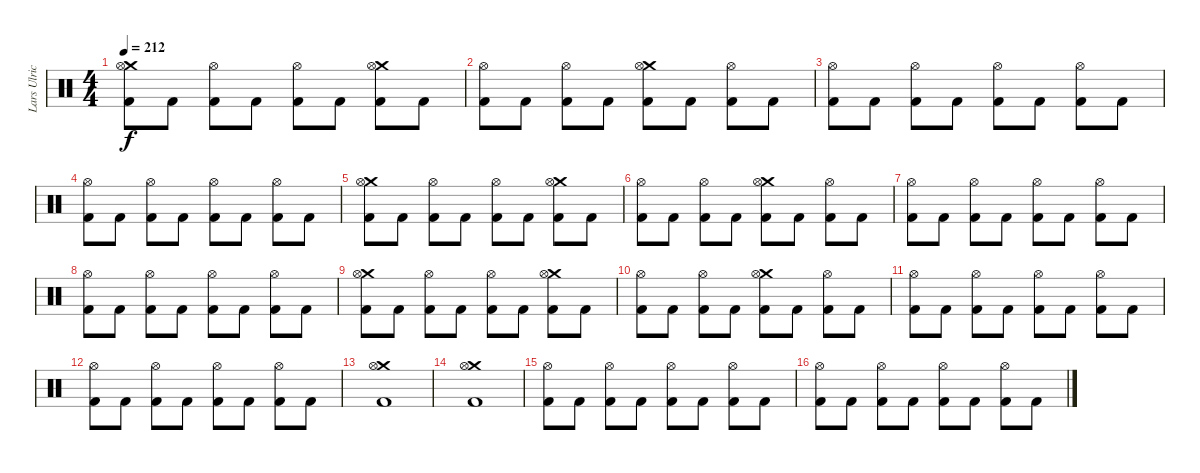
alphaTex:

\track ("Lars Ulrich" "Lars Ulric") {instrument percussion}
\staff {score}
\articulation defaults
\ts (4 4)
\tempo 212
\clef neutral
\ks c
("Crash medium (hit)" "Hi-Hat (open)" "Kick (hit) 2").8{dy f} "Kick (hit) 2".8 ("Hi-Hat (open)" "Kick (hit) 2").8 "Kick (hit) 2".8 ("Hi-Hat (open)" "Kick (hit) 2").8 "Kick (hit) 2".8 ("Crash medium (hit)" "Hi-Hat (open)" "Kick (hit) 2").8 "Kick (hit) 2".8 |
("Hi-Hat (open)" "Kick (hit) 2").8 "Kick (hit) 2".8 ("Hi-Hat (open)" "Kick (hit) 2").8 "Kick (hit) 2".8 ("Crash medium (hit)" "Hi-Hat (open)" "Kick (hit) 2").8 "Kick (hit) 2".8 ("Hi-Hat (open)" "Kick (hit) 2").8 "Kick (hit) 2".8 |
("Hi-Hat (open)" "Kick (hit) 2").8 "Kick (hit) 2".8 ("Hi-Hat (open)" "Kick (hit) 2").8 "Kick (hit) 2".8 ("Hi-Hat (open)" "Kick (hit) 2").8 "Kick (hit) 2".8 ("Hi-Hat (open)" "Kick (hit) 2").8 "Kick (hit) 2".8 |
("Hi-Hat (open)" "Kick (hit) 2").8 "Kick (hit) 2".8 ("Hi-Hat (open)" "Kick (hit) 2").8 "Kick (hit) 2".8 ("Hi-Hat (open)" "Kick (hit) 2").8 "Kick (hit) 2".8 ("Hi-Hat (open)" "Kick (hit) 2").8 "Kick (hit) 2".8 |
("Crash medium (hit)" "Hi-Hat (open)" "Kick (hit) 2").8 "Kick (hit) 2".8 ("Hi-Hat (open)" "Kick (hit) 2").8 "Kick (hit) 2".8 ("Hi-Hat (open)" "Kick (hit) 2").8 "Kick (hit) 2".8 ("Crash medium (hit)" "Hi-Hat (open)" "Kick (hit) 2").8 "Kick (hit) 2".8 |
("Hi-Hat (open)" "Kick (hit) 2").8 "Kick (hit) 2".8 ("Hi-Hat (open)" "Kick (hit) 2").8 "Kick (hit) 2".8 ("Crash medium (hit)" "Hi-Hat (open)" "Kick (hit) 2").8 "Kick (hit) 2".8 ("Hi-Hat (open)" "Kick (hit) 2").8 "Kick (hit) 2".8 |
("Hi-Hat (open)" "Kick (hit) 2").8 "Kick (hit) 2".8 ("Hi-Hat (open)" "Kick (hit) 2").8 "Kick (hit) 2".8 ("Hi-Hat (open)" "Kick (hit) 2").8 "Kick (hit) 2".8 ("Hi-Hat (open)" "Kick (hit) 2").8 "Kick (hit) 2".8 |
("Hi-Hat (open)" "Kick (hit) 2").8 "Kick (hit) 2".8 ("Hi-Hat (open)" "Kick (hit) 2").8 "Kick (hit) 2".8 ("Hi-Hat (open)" "Kick (hit) 2").8 "Kick (hit) 2".8 ("Hi-Hat (open)" "Kick (hit) 2").8 "Kick (hit) 2".8 |
("Crash medium (hit)" "Hi-Hat (open)" "Kick (hit) 2").8 "Kick (hit) 2".8 ("Hi-Hat (open)" "Kick (hit) 2").8 "Kick (hit) 2".8 ("Hi-Hat (open)" "Kick (hit) 2").8 "Kick (hit) 2".8 ("Crash medium (hit)" "Hi-Hat (open)" "Kick (hit) 2").8 "Kick (hit) 2".8 |
("Hi-Hat (open)" "Kick (hit) 2").8 "Kick (hit) 2".8 ("Hi-Hat (open)" "Kick (hit) 2").8 "Kick (hit) 2".8 ("Crash medium (hit)" "Hi-Hat (open)" "Kick (hit) 2").8 "Kick (hit) 2".8 ("Hi-Hat (open)" "Kick (hit) 2").8 "Kick (hit) 2".8 |
("Hi-Hat (open)" "Kick (hit) 2").8 "Kick (hit) 2".8 ("Hi-Hat (open)" "Kick (hit) 2").8 "Kick (hit) 2".8 ("Hi-Hat (open)" "Kick (hit) 2").8 "Kick (hit) 2".8 ("Hi-Hat (open)" "Kick (hit) 2").8 "Kick (hit) 2".8 |
("Hi-Hat (open)" "Kick (hit) 2").8 "Kick (hit) 2".8 ("Hi-Hat (open)" "Kick (hit) 2").8 "Kick (hit) 2".8 ("Hi-Hat (open)" "Kick (hit) 2").8 "Kick (hit) 2".8 ("Hi-Hat (open)" "Kick (hit) 2").8 "Kick (hit) 2".8 |
("Crash medium (hit)" "Hi-Hat (open)" "Kick (hit) 2").1 |
("Crash medium (hit)" "Hi-Hat (open)" "Kick (hit) 2").1 |
("Hi-Hat (open)" "Kick (hit) 2").8 "Kick (hit) 2".8 ("Hi-Hat (open)" "Kick (hit) 2").8 "Kick (hit) 2".8 ("Hi-Hat (open)" "Kick (hit) 2").8 "Kick (hit) 2".8 ("Hi-Hat (open)" "Kick (hit) 2").8 "Kick (hit) 2".8 |
("Hi-Hat (open)" "Kick (hit) 2").8 "Kick (hit) 2".8 ("Hi-Hat (open)" "Kick (hit) 2").8 "Kick (hit) 2".8 ("Hi-Hat (open)" "Kick (hit) 2").8 "Kick (hit) 2".8 ("Hi-Hat (open)" "Kick (hit) 2").8 "Kick (hit) 2".8
